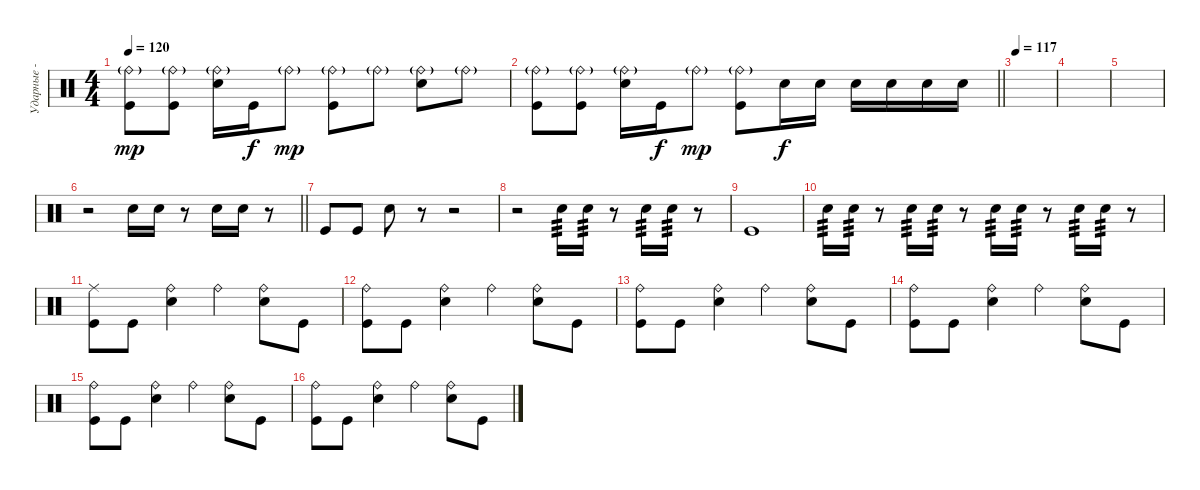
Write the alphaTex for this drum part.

\track ("Ударные - Джек Уайт" "Ударные - ") {instrument percussion}
\staff {score}
\articulation defaults
\ts (4 4)
\tempo 120
\clef neutral
\ks c
("Ride (bell)"{g} "Kick (hit)").8{dy mp} ("Ride (bell)"{g} "Kick (hit)").8 ("Ride (bell)"{g} "Snare (hit) 2").16 "Kick (hit)".16{dy f} "Ride (bell)"{g}.8{dy mp} ("Ride (bell)"{g} "Kick (hit)").8 "Ride (bell)"{g}.8 ("Ride (bell)"{g} "Snare (hit) 2").8 "Ride (bell)"{g}.8 |
\barLineRight lightlight
("Ride (bell)"{g} "Kick (hit)").8 ("Ride (bell)"{g} "Kick (hit)").8 ("Ride (bell)"{g} "Snare (hit) 2").16 "Kick (hit)".16{dy f} "Ride (bell)"{g}.8{dy mp} ("Ride (bell)"{g} "Kick (hit)").8 "Snare (hit) 2".16{dy f} "Snare (hit) 2".16 "Snare (hit) 2".16 "Snare (hit) 2".16 "Snare (hit) 2".16 "Snare (hit) 2".16 |
\tempo 117
|
|
|
\barLineRight lightlight
r.2 "Snare (hit) 2".16 "Snare (hit) 2".16 r.8 "Snare (hit) 2".16 "Snare (hit) 2".16 r.8 |
"Kick (hit)".8 "Kick (hit)".8 "Snare (hit) 2".8 r.8 r.2 |
r.2 "Snare (hit) 2".16{tp 3} "Snare (hit) 2".16{tp 3} r.8 "Snare (hit) 2".16{tp 3} "Snare (hit) 2".16{tp 3} r.8 |
"Kick (hit)".1 |
"Snare (hit) 2".16{tp 3} "Snare (hit) 2".16{tp 3} r.8 "Snare (hit) 2".16{tp 3} "Snare (hit) 2".16{tp 3} r.8 "Snare (hit) 2".16{tp 3} "Snare (hit) 2".16{tp 3} r.8 "Snare (hit) 2".16{tp 3} "Snare (hit) 2".16{tp 3} r.8 |
("Ride (middle)" "Kick (hit)").8 "Kick (hit)".8 ("Ride (bell)" "Snare (hit) 2").4 "Ride (bell)".4 ("Ride (bell)" "Snare (hit) 2").8 "Kick (hit)".8 |
("Ride (bell)" "Kick (hit)").8 "Kick (hit)".8 ("Ride (bell)" "Snare (hit) 2").4 "Ride (bell)".4 ("Ride (bell)" "Snare (hit) 2").8 "Kick (hit)".8 |
("Ride (bell)" "Kick (hit)").8 "Kick (hit)".8 ("Ride (bell)" "Snare (hit) 2").4 "Ride (bell)".4 ("Ride (bell)" "Snare (hit) 2").8 "Kick (hit)".8 |
("Ride (bell)" "Kick (hit)").8 "Kick (hit)".8 ("Ride (bell)" "Snare (hit) 2").4 "Ride (bell)".4 ("Ride (bell)" "Snare (hit) 2").8 "Kick (hit)".8 |
("Ride (bell)" "Kick (hit)").8 "Kick (hit)".8 ("Ride (bell)" "Snare (hit) 2").4 "Ride (bell)".4 ("Ride (bell)" "Snare (hit) 2").8 "Kick (hit)".8 |
("Ride (bell)" "Kick (hit)").8 "Kick (hit)".8 ("Ride (bell)" "Snare (hit) 2").4 "Ride (bell)".4 ("Ride (bell)" "Snare (hit) 2").8 "Kick (hit)".8
